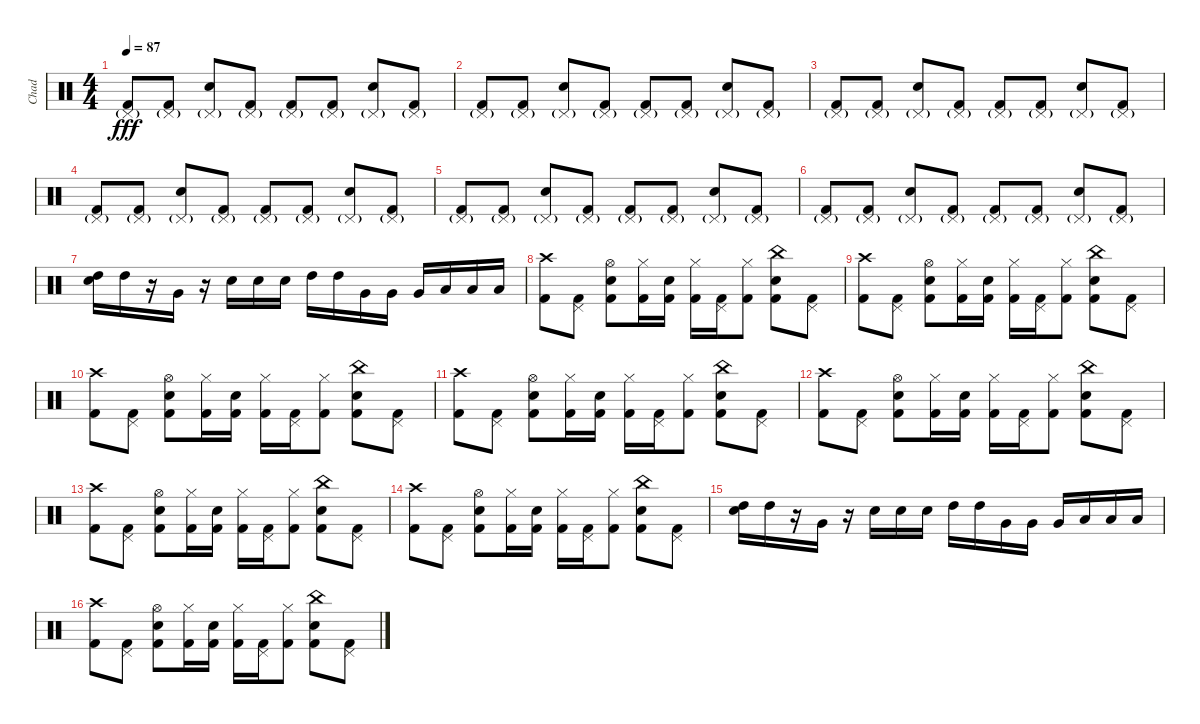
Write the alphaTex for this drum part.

\track ("Chad" "Chad") {instrument percussion}
\staff {score}
\articulation defaults
\ts (4 4)
\tempo 87
\clef neutral
\ks c
("Pedal Hi-Hat (hit)"{g} "Kick (hit) 2").8{dy fff} ("Pedal Hi-Hat (hit)"{g} "Kick (hit) 2").8 ("Pedal Hi-Hat (hit)"{g} "Snare (hit) 2").8 ("Pedal Hi-Hat (hit)"{g} "Kick (hit) 2").8 ("Pedal Hi-Hat (hit)"{g} "Kick (hit) 2").8 ("Pedal Hi-Hat (hit)"{g} "Kick (hit) 2").8 ("Pedal Hi-Hat (hit)"{g} "Snare (hit) 2").8 ("Pedal Hi-Hat (hit)"{g} "Kick (hit) 2").8 |
("Pedal Hi-Hat (hit)"{g} "Kick (hit) 2").8 ("Pedal Hi-Hat (hit)"{g} "Kick (hit) 2").8 ("Pedal Hi-Hat (hit)"{g} "Snare (hit) 2").8 ("Pedal Hi-Hat (hit)"{g} "Kick (hit) 2").8 ("Pedal Hi-Hat (hit)"{g} "Kick (hit) 2").8 ("Pedal Hi-Hat (hit)"{g} "Kick (hit) 2").8 ("Pedal Hi-Hat (hit)"{g} "Snare (hit) 2").8 ("Pedal Hi-Hat (hit)"{g} "Kick (hit) 2").8 |
("Pedal Hi-Hat (hit)"{g} "Kick (hit) 2").8 ("Pedal Hi-Hat (hit)"{g} "Kick (hit) 2").8 ("Pedal Hi-Hat (hit)"{g} "Snare (hit) 2").8 ("Pedal Hi-Hat (hit)"{g} "Kick (hit) 2").8 ("Pedal Hi-Hat (hit)"{g} "Kick (hit) 2").8 ("Pedal Hi-Hat (hit)"{g} "Kick (hit) 2").8 ("Pedal Hi-Hat (hit)"{g} "Snare (hit) 2").8 ("Pedal Hi-Hat (hit)"{g} "Kick (hit) 2").8 |
("Pedal Hi-Hat (hit)"{g} "Kick (hit) 2").8 ("Pedal Hi-Hat (hit)"{g} "Kick (hit) 2").8 ("Pedal Hi-Hat (hit)"{g} "Snare (hit) 2").8 ("Pedal Hi-Hat (hit)"{g} "Kick (hit) 2").8 ("Pedal Hi-Hat (hit)"{g} "Kick (hit) 2").8 ("Pedal Hi-Hat (hit)"{g} "Kick (hit) 2").8 ("Pedal Hi-Hat (hit)"{g} "Snare (hit) 2").8 ("Pedal Hi-Hat (hit)"{g} "Kick (hit) 2").8 |
("Pedal Hi-Hat (hit)"{g} "Kick (hit) 2").8 ("Pedal Hi-Hat (hit)"{g} "Kick (hit) 2").8 ("Pedal Hi-Hat (hit)"{g} "Snare (hit) 2").8 ("Pedal Hi-Hat (hit)"{g} "Kick (hit) 2").8 ("Pedal Hi-Hat (hit)"{g} "Kick (hit) 2").8 ("Pedal Hi-Hat (hit)"{g} "Kick (hit) 2").8 ("Pedal Hi-Hat (hit)"{g} "Snare (hit) 2").8 ("Pedal Hi-Hat (hit)"{g} "Kick (hit) 2").8 |
("Pedal Hi-Hat (hit)"{g} "Kick (hit) 2").8 ("Pedal Hi-Hat (hit)"{g} "Kick (hit) 2").8 ("Pedal Hi-Hat (hit)"{g} "Snare (hit) 2").8 ("Pedal Hi-Hat (hit)"{g} "Kick (hit) 2").8 ("Pedal Hi-Hat (hit)"{g} "Kick (hit) 2").8 ("Pedal Hi-Hat (hit)"{g} "Kick (hit) 2").8 ("Pedal Hi-Hat (hit)"{g} "Snare (hit) 2").8 ("Pedal Hi-Hat (hit)"{g} "Kick (hit) 2").8 |
("High Tom (hit)" "Snare (hit) 2").16 "High Tom (hit)".16 r.16 "Very Low Tom (hit)".16 r.16 "Snare (hit) 2".16 "Snare (hit) 2".16 "Snare (hit) 2".16 "High Tom (hit)".16 "High Tom (hit)".16 "Very Low Tom (hit)".16 "Very Low Tom (hit)".16 "Very Low Tom (hit)".16 "Low Floor Tom (hit)".16 "Low Floor Tom (hit)".16 "Low Floor Tom (hit)".16 |
("Crash high (hit)" "Kick (hit) 2").8 ("Pedal Hi-Hat (hit)" "Kick (hit) 2").8 ("Hi-Hat (open)" "Snare (hit) 2" "Kick (hit) 2").8 ("Hi-Hat (closed)" "Kick (hit) 2").16 ("Snare (hit) 2" "Kick (hit) 2").16 ("Hi-Hat (closed)" "Kick (hit) 2").16 ("Pedal Hi-Hat (hit)" "Kick (hit) 2").16 ("Hi-Hat (closed)" "Kick (hit) 2").8 ("China (hit)" "Snare (hit) 2" "Kick (hit) 2").8 ("Pedal Hi-Hat (hit)" "Kick (hit) 2").8 |
("Crash high (hit)" "Kick (hit) 2").8 ("Pedal Hi-Hat (hit)" "Kick (hit) 2").8 ("Hi-Hat (open)" "Snare (hit) 2" "Kick (hit) 2").8 ("Hi-Hat (closed)" "Kick (hit) 2").16 ("Snare (hit) 2" "Kick (hit) 2").16 ("Hi-Hat (closed)" "Kick (hit) 2").16 ("Pedal Hi-Hat (hit)" "Kick (hit) 2").16 ("Hi-Hat (closed)" "Kick (hit) 2").8 ("China (hit)" "Snare (hit) 2" "Kick (hit) 2").8 ("Pedal Hi-Hat (hit)" "Kick (hit) 2").8 |
("Crash high (hit)" "Kick (hit) 2").8 ("Pedal Hi-Hat (hit)" "Kick (hit) 2").8 ("Hi-Hat (open)" "Snare (hit) 2" "Kick (hit) 2").8 ("Hi-Hat (closed)" "Kick (hit) 2").16 ("Snare (hit) 2" "Kick (hit) 2").16 ("Hi-Hat (closed)" "Kick (hit) 2").16 ("Pedal Hi-Hat (hit)" "Kick (hit) 2").16 ("Hi-Hat (closed)" "Kick (hit) 2").8 ("China (hit)" "Snare (hit) 2" "Kick (hit) 2").8 ("Pedal Hi-Hat (hit)" "Kick (hit) 2").8 |
("Crash high (hit)" "Kick (hit) 2").8 ("Pedal Hi-Hat (hit)" "Kick (hit) 2").8 ("Hi-Hat (open)" "Snare (hit) 2" "Kick (hit) 2").8 ("Hi-Hat (closed)" "Kick (hit) 2").16 ("Snare (hit) 2" "Kick (hit) 2").16 ("Hi-Hat (closed)" "Kick (hit) 2").16 ("Pedal Hi-Hat (hit)" "Kick (hit) 2").16 ("Hi-Hat (closed)" "Kick (hit) 2").8 ("China (hit)" "Snare (hit) 2" "Kick (hit) 2").8 ("Pedal Hi-Hat (hit)" "Kick (hit) 2").8 |
("Crash high (hit)" "Kick (hit) 2").8 ("Pedal Hi-Hat (hit)" "Kick (hit) 2").8 ("Hi-Hat (open)" "Snare (hit) 2" "Kick (hit) 2").8 ("Hi-Hat (closed)" "Kick (hit) 2").16 ("Snare (hit) 2" "Kick (hit) 2").16 ("Hi-Hat (closed)" "Kick (hit) 2").16 ("Pedal Hi-Hat (hit)" "Kick (hit) 2").16 ("Hi-Hat (closed)" "Kick (hit) 2").8 ("China (hit)" "Snare (hit) 2" "Kick (hit) 2").8 ("Pedal Hi-Hat (hit)" "Kick (hit) 2").8 |
("Crash high (hit)" "Kick (hit) 2").8 ("Pedal Hi-Hat (hit)" "Kick (hit) 2").8 ("Hi-Hat (open)" "Snare (hit) 2" "Kick (hit) 2").8 ("Hi-Hat (closed)" "Kick (hit) 2").16 ("Snare (hit) 2" "Kick (hit) 2").16 ("Hi-Hat (closed)" "Kick (hit) 2").16 ("Pedal Hi-Hat (hit)" "Kick (hit) 2").16 ("Hi-Hat (closed)" "Kick (hit) 2").8 ("China (hit)" "Snare (hit) 2" "Kick (hit) 2").8 ("Pedal Hi-Hat (hit)" "Kick (hit) 2").8 |
("Crash high (hit)" "Kick (hit) 2").8 ("Pedal Hi-Hat (hit)" "Kick (hit) 2").8 ("Hi-Hat (open)" "Snare (hit) 2" "Kick (hit) 2").8 ("Hi-Hat (closed)" "Kick (hit) 2").16 ("Snare (hit) 2" "Kick (hit) 2").16 ("Hi-Hat (closed)" "Kick (hit) 2").16 ("Pedal Hi-Hat (hit)" "Kick (hit) 2").16 ("Hi-Hat (closed)" "Kick (hit) 2").8 ("China (hit)" "Snare (hit) 2" "Kick (hit) 2").8 ("Pedal Hi-Hat (hit)" "Kick (hit) 2").8 |
("High Tom (hit)" "Snare (hit) 2").16 "High Tom (hit)".16 r.16 "Very Low Tom (hit)".16 r.16 "Snare (hit) 2".16 "Snare (hit) 2".16 "Snare (hit) 2".16 "High Tom (hit)".16 "High Tom (hit)".16 "Very Low Tom (hit)".16 "Very Low Tom (hit)".16 "Very Low Tom (hit)".16 "Low Floor Tom (hit)".16 "Low Floor Tom (hit)".16 "Low Floor Tom (hit)".16 |
("Crash high (hit)" "Kick (hit) 2").8 ("Pedal Hi-Hat (hit)" "Kick (hit) 2").8 ("Hi-Hat (open)" "Snare (hit) 2" "Kick (hit) 2").8 ("Hi-Hat (closed)" "Kick (hit) 2").16 ("Snare (hit) 2" "Kick (hit) 2").16 ("Hi-Hat (closed)" "Kick (hit) 2").16 ("Pedal Hi-Hat (hit)" "Kick (hit) 2").16 ("Hi-Hat (closed)" "Kick (hit) 2").8 ("China (hit)" "Snare (hit) 2" "Kick (hit) 2").8 ("Pedal Hi-Hat (hit)" "Kick (hit) 2").8
